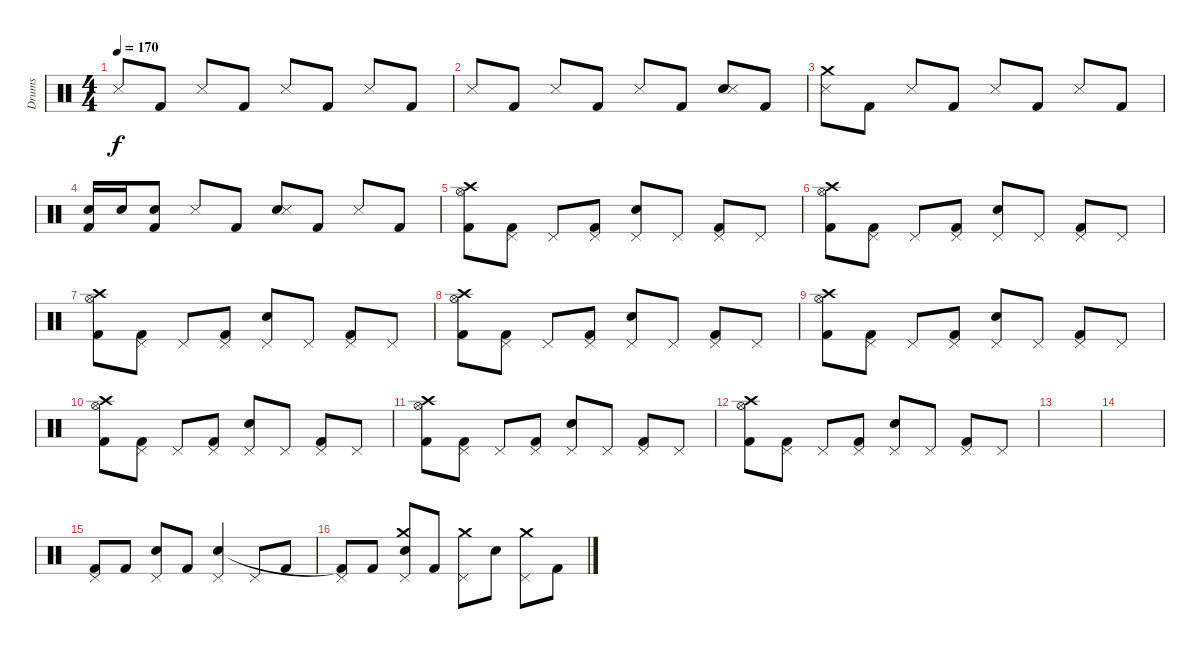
\track ("Drums" "Drums") {instrument percussion}
\staff {score}
\articulation defaults
\ts (4 4)
\tempo 170
\clef neutral
\ks c "Metronome (hit)".8{dy f} "Kick (hit) 2".8 "Metronome (hit)".8 "Kick (hit) 2".8 "Metronome (hit)".8 "Kick (hit) 2".8 "Metronome (hit)".8 "Kick (hit) 2".8
|
"Metronome (hit)".8 "Kick (hit) 2".8 "Metronome (hit)".8 "Kick (hit) 2".8 "Metronome (hit)".8 "Kick (hit) 2".8 ("Electric Snare (hit)" "Metronome (hit)").8 "Kick (hit) 2".8 |
("Crash medium (hit)" "Metronome (hit)").8 "Kick (hit) 2".8 "Metronome (hit)".8 "Kick (hit) 2".8 "Metronome (hit)".8 "Kick (hit) 2".8 "Metronome (hit)".8 "Kick (hit) 2".8 |
("Electric Snare (hit)" "Kick (hit) 2").16 "Electric Snare (hit)".16 ("Electric Snare (hit)" "Kick (hit) 2").8 "Metronome (hit)".8 "Kick (hit) 2".8 ("Electric Snare (hit)" "Metronome (hit)").8 "Kick (hit) 2".8 "Metronome (hit)".8 "Kick (hit) 2".8 |
("Hi-Hat (open)" "Kick (hit) 2" "Crash high (hit)").8 ("Pedal Hi-Hat (hit)" "Kick (hit) 2").8 "Pedal Hi-Hat (hit)".8 ("Pedal Hi-Hat (hit)" "Kick (hit) 2").8 ("Pedal Hi-Hat (hit)" "Electric Snare (hit)").8 "Pedal Hi-Hat (hit)".8 ("Pedal Hi-Hat (hit)" "Kick (hit) 2").8 "Pedal Hi-Hat (hit)".8 |
("Hi-Hat (open)" "Kick (hit) 2" "Crash high (hit)").8 ("Pedal Hi-Hat (hit)" "Kick (hit) 2").8 "Pedal Hi-Hat (hit)".8 ("Pedal Hi-Hat (hit)" "Kick (hit) 2").8 ("Pedal Hi-Hat (hit)" "Electric Snare (hit)").8 "Pedal Hi-Hat (hit)".8 ("Pedal Hi-Hat (hit)" "Kick (hit) 2").8 "Pedal Hi-Hat (hit)".8 |
("Hi-Hat (open)" "Kick (hit) 2" "Crash high (hit)").8 ("Pedal Hi-Hat (hit)" "Kick (hit) 2").8 "Pedal Hi-Hat (hit)".8 ("Pedal Hi-Hat (hit)" "Kick (hit) 2").8 ("Pedal Hi-Hat (hit)" "Electric Snare (hit)").8 "Pedal Hi-Hat (hit)".8 ("Pedal Hi-Hat (hit)" "Kick (hit) 2").8 "Pedal Hi-Hat (hit)".8 |
("Hi-Hat (open)" "Kick (hit) 2" "Crash high (hit)").8 ("Pedal Hi-Hat (hit)" "Kick (hit) 2").8 "Pedal Hi-Hat (hit)".8 ("Pedal Hi-Hat (hit)" "Kick (hit) 2").8 ("Pedal Hi-Hat (hit)" "Electric Snare (hit)").8 "Pedal Hi-Hat (hit)".8 ("Pedal Hi-Hat (hit)" "Kick (hit) 2").8 "Pedal Hi-Hat (hit)".8 |
("Hi-Hat (open)" "Kick (hit) 2" "Crash high (hit)").8 ("Pedal Hi-Hat (hit)" "Kick (hit) 2").8 "Pedal Hi-Hat (hit)".8 ("Pedal Hi-Hat (hit)" "Kick (hit) 2").8 ("Pedal Hi-Hat (hit)" "Electric Snare (hit)").8 "Pedal Hi-Hat (hit)".8 ("Pedal Hi-Hat (hit)" "Kick (hit) 2").8 "Pedal Hi-Hat (hit)".8 |
("Hi-Hat (open)" "Kick (hit) 2" "Crash high (hit)").8 ("Pedal Hi-Hat (hit)" "Kick (hit) 2").8 "Pedal Hi-Hat (hit)".8 ("Pedal Hi-Hat (hit)" "Kick (hit) 2").8 ("Pedal Hi-Hat (hit)" "Electric Snare (hit)").8 "Pedal Hi-Hat (hit)".8 ("Pedal Hi-Hat (hit)" "Kick (hit) 2").8 "Pedal Hi-Hat (hit)".8 |
("Hi-Hat (open)" "Kick (hit) 2" "Crash high (hit)").8 ("Pedal Hi-Hat (hit)" "Kick (hit) 2").8 "Pedal Hi-Hat (hit)".8 ("Pedal Hi-Hat (hit)" "Kick (hit) 2").8 ("Pedal Hi-Hat (hit)" "Electric Snare (hit)").8 "Pedal Hi-Hat (hit)".8 ("Pedal Hi-Hat (hit)" "Kick (hit) 2").8 "Pedal Hi-Hat (hit)".8 |
("Hi-Hat (open)" "Kick (hit) 2" "Crash high (hit)").8 ("Pedal Hi-Hat (hit)" "Kick (hit) 2").8 "Pedal Hi-Hat (hit)".8 ("Pedal Hi-Hat (hit)" "Kick (hit) 2").8 ("Pedal Hi-Hat (hit)" "Electric Snare (hit)").8 "Pedal Hi-Hat (hit)".8 ("Pedal Hi-Hat (hit)" "Kick (hit) 2").8 "Pedal Hi-Hat (hit)".8 |
|
|
("Pedal Hi-Hat (hit)" "Kick (hit) 2").8 "Kick (hit) 2".8 ("Pedal Hi-Hat (hit)" "Electric Snare (hit)").8 "Kick (hit) 2".8 ("Pedal Hi-Hat (hit)" "Electric Snare (hit)").4 "Pedal Hi-Hat (hit)".8 "Kick (hit) 2".8 |
("Pedal Hi-Hat (hit)" "Kick (hit) 2"{t}).8 "Kick (hit) 2".8 ("Pedal Hi-Hat (hit)" "Electric Snare (hit)" "Crash medium (hit)").8 "Kick (hit) 2".8 ("Pedal Hi-Hat (hit)" "Crash medium (hit)").8 "Electric Snare (hit)".8 ("Pedal Hi-Hat (hit)" "Crash medium (hit)").8 "Kick (hit) 2".8
